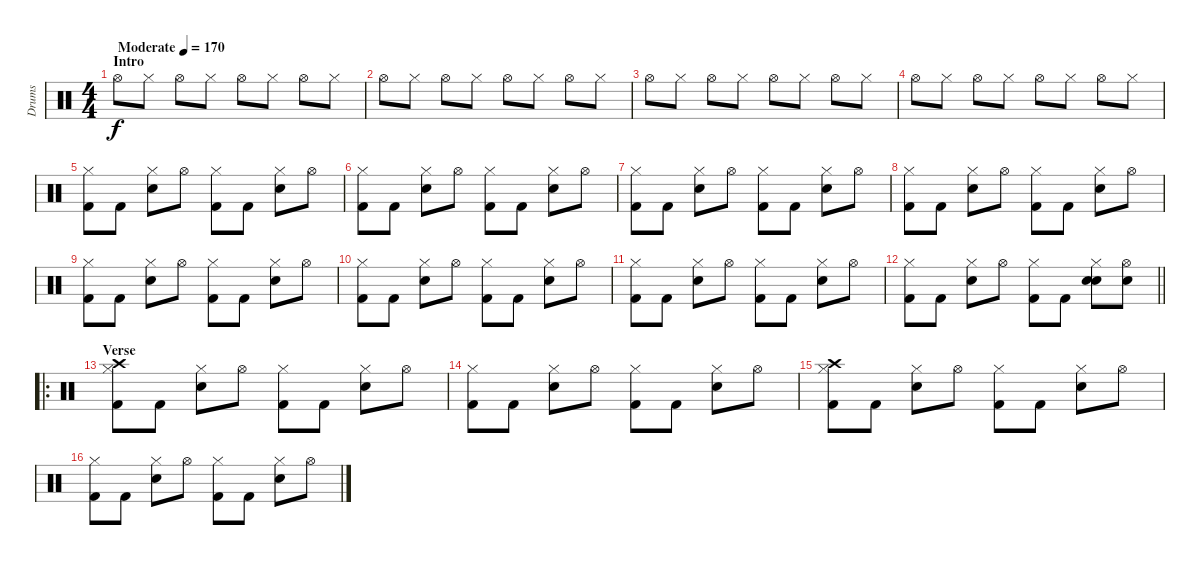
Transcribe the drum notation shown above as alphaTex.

\track ("Drums" "Drums") {instrument percussion}
\staff {score}
\articulation defaults
\ts (4 4)
\section ("" "Intro")
\tempo (170 "Moderate")
\clef neutral
\ks c "Hi-Hat (open)".8{dy f} "Hi-Hat (closed)".8 "Hi-Hat (open)".8 "Hi-Hat (closed)".8 "Hi-Hat (open)".8 "Hi-Hat (closed)".8 "Hi-Hat (open)".8 "Hi-Hat (closed)".8
|
"Hi-Hat (open)".8 "Hi-Hat (closed)".8 "Hi-Hat (open)".8 "Hi-Hat (closed)".8 "Hi-Hat (open)".8 "Hi-Hat (closed)".8 "Hi-Hat (open)".8 "Hi-Hat (closed)".8 |
"Hi-Hat (open)".8 "Hi-Hat (closed)".8 "Hi-Hat (open)".8 "Hi-Hat (closed)".8 "Hi-Hat (open)".8 "Hi-Hat (closed)".8 "Hi-Hat (open)".8 "Hi-Hat (closed)".8 |
"Hi-Hat (open)".8 "Hi-Hat (closed)".8 "Hi-Hat (open)".8 "Hi-Hat (closed)".8 "Hi-Hat (open)".8 "Hi-Hat (closed)".8 "Hi-Hat (open)".8 "Hi-Hat (closed)".8 |
("Kick (hit) 2" "Hi-Hat (closed)").8 "Kick (hit) 2".8 ("Snare (hit) 2" "Hi-Hat (closed)").8 "Hi-Hat (open)".8 ("Kick (hit) 2" "Hi-Hat (closed)").8 "Kick (hit) 2".8 ("Snare (hit) 2" "Hi-Hat (closed)").8 "Hi-Hat (open)".8 |
("Kick (hit) 2" "Hi-Hat (closed)").8 "Kick (hit) 2".8 ("Snare (hit) 2" "Hi-Hat (closed)").8 "Hi-Hat (open)".8 ("Kick (hit) 2" "Hi-Hat (closed)").8 "Kick (hit) 2".8 ("Snare (hit) 2" "Hi-Hat (closed)").8 "Hi-Hat (open)".8 |
("Kick (hit) 2" "Hi-Hat (closed)").8 "Kick (hit) 2".8 ("Snare (hit) 2" "Hi-Hat (closed)").8 "Hi-Hat (open)".8 ("Kick (hit) 2" "Hi-Hat (closed)").8 "Kick (hit) 2".8 ("Snare (hit) 2" "Hi-Hat (closed)").8 "Hi-Hat (open)".8 |
("Kick (hit) 2" "Hi-Hat (closed)").8 "Kick (hit) 2".8 ("Snare (hit) 2" "Hi-Hat (closed)").8 "Hi-Hat (open)".8 ("Kick (hit) 2" "Hi-Hat (closed)").8 "Kick (hit) 2".8 ("Snare (hit) 2" "Hi-Hat (closed)").8 "Hi-Hat (open)".8 |
("Kick (hit) 2" "Hi-Hat (closed)").8 "Kick (hit) 2".8 ("Snare (hit) 2" "Hi-Hat (closed)").8 "Hi-Hat (open)".8 ("Kick (hit) 2" "Hi-Hat (closed)").8 "Kick (hit) 2".8 ("Snare (hit) 2" "Hi-Hat (closed)").8 "Hi-Hat (open)".8 |
("Kick (hit) 2" "Hi-Hat (closed)").8 "Kick (hit) 2".8 ("Snare (hit) 2" "Hi-Hat (closed)").8 "Hi-Hat (open)".8 ("Kick (hit) 2" "Hi-Hat (closed)").8 "Kick (hit) 2".8 ("Snare (hit) 2" "Hi-Hat (closed)").8 "Hi-Hat (open)".8 |
("Kick (hit) 2" "Hi-Hat (closed)").8 "Kick (hit) 2".8 ("Snare (hit) 2" "Hi-Hat (closed)").8 "Hi-Hat (open)".8 ("Kick (hit) 2" "Hi-Hat (closed)").8 "Kick (hit) 2".8 ("Snare (hit) 2" "Hi-Hat (closed)").8 "Hi-Hat (open)".8 |
\barLineRight lightlight
("Kick (hit) 2" "Hi-Hat (closed)").8 "Kick (hit) 2".8 ("Snare (hit) 2" "Hi-Hat (closed)").8 "Hi-Hat (open)".8 ("Kick (hit) 2" "Hi-Hat (closed)").8 "Kick (hit) 2".8 ("Hand Clap (hit)" "Snare (hit) 2" "Hi-Hat (closed)").8 ("Hand Clap (hit)" "Hi-Hat (open)").8 |
\ro
\section ("" "Verse")
("Crash high (hit)" "Kick (hit) 2" "Hi-Hat (closed)").8 "Kick (hit) 2".8 ("Snare (hit) 2" "Hi-Hat (closed)").8 "Hi-Hat (open)".8 ("Kick (hit) 2" "Hi-Hat (closed)").8 "Kick (hit) 2".8 ("Snare (hit) 2" "Hi-Hat (closed)").8 "Hi-Hat (open)".8 |
("Kick (hit) 2" "Hi-Hat (closed)").8 "Kick (hit) 2".8 ("Snare (hit) 2" "Hi-Hat (closed)").8 "Hi-Hat (open)".8 ("Kick (hit) 2" "Hi-Hat (closed)").8 "Kick (hit) 2".8 ("Snare (hit) 2" "Hi-Hat (closed)").8 "Hi-Hat (open)".8 |
("Crash high (hit)" "Kick (hit) 2" "Hi-Hat (closed)").8 "Kick (hit) 2".8 ("Snare (hit) 2" "Hi-Hat (closed)").8 "Hi-Hat (open)".8 ("Kick (hit) 2" "Hi-Hat (closed)").8 "Kick (hit) 2".8 ("Snare (hit) 2" "Hi-Hat (closed)").8 "Hi-Hat (open)".8 |
("Kick (hit) 2" "Hi-Hat (closed)").8 "Kick (hit) 2".8 ("Snare (hit) 2" "Hi-Hat (closed)").8 "Hi-Hat (open)".8 ("Kick (hit) 2" "Hi-Hat (closed)").8 "Kick (hit) 2".8 ("Snare (hit) 2" "Hi-Hat (closed)").8 "Hi-Hat (open)".8
